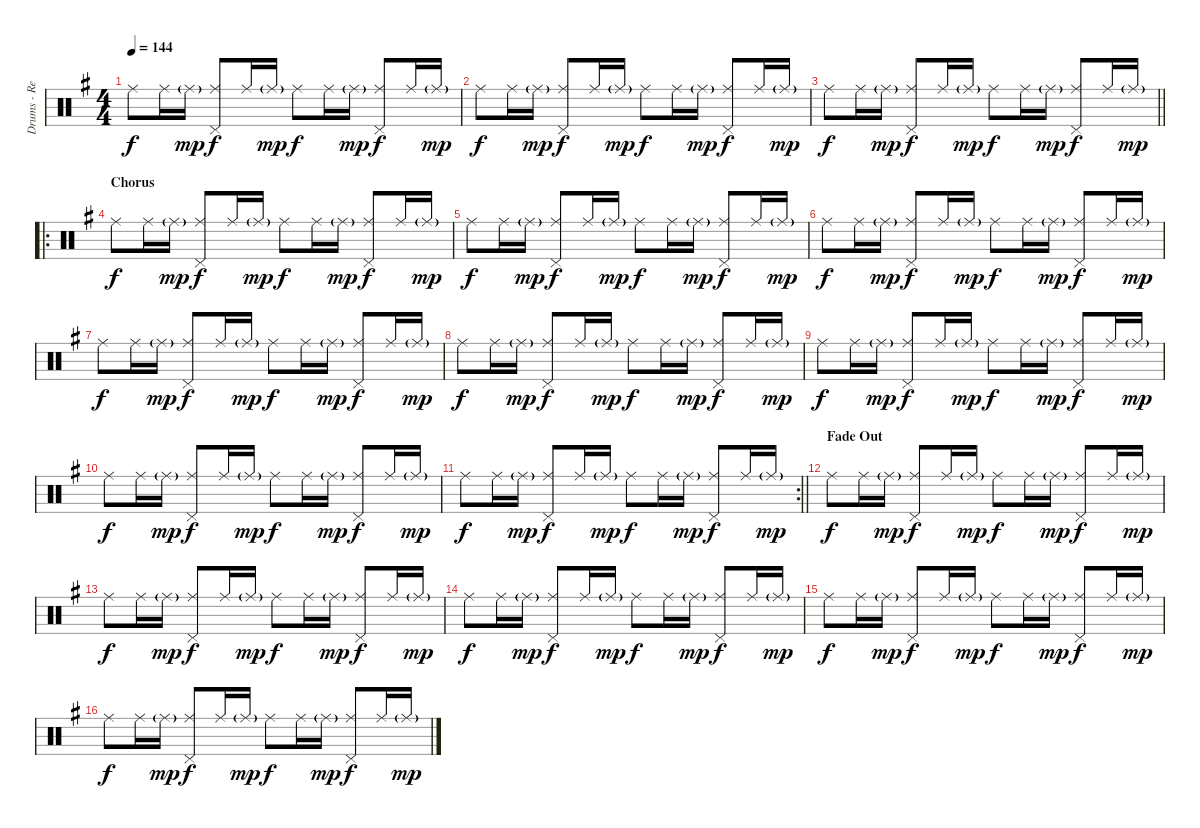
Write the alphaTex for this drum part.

\track ("Drums - Reni" "Drums - Re") {instrument percussion}
\staff {score}
\articulation defaults
\ts (4 4)
\tempo 144
\clef neutral
\ks g "Ride (middle)".8{dy f} "Ride (middle)".16 "Ride (middle)"{g}.16{dy mp}
("Ride (middle)" "Pedal Hi-Hat (hit)").8{dy f} "Ride (middle)".16 "Ride (middle)"{g}.16{dy mp} "Ride (middle)".8{dy f} "Ride (middle)".16 "Ride (middle)"{g}.16{dy mp} ("Ride (middle)" "Pedal Hi-Hat (hit)").8{dy f} "Ride (middle)".16 "Ride (middle)"{g}.16{dy mp} |
"Ride (middle)".8{dy f} "Ride (middle)".16 "Ride (middle)"{g}.16{dy mp} ("Ride (middle)" "Pedal Hi-Hat (hit)").8{dy f} "Ride (middle)".16 "Ride (middle)"{g}.16{dy mp} "Ride (middle)".8{dy f} "Ride (middle)".16 "Ride (middle)"{g}.16{dy mp} ("Ride (middle)" "Pedal Hi-Hat (hit)").8{dy f} "Ride (middle)".16 "Ride (middle)"{g}.16{dy mp} |
\barLineRight lightlight "Ride (middle)".8{dy f} "Ride (middle)".16 "Ride (middle)"{g}.16{dy mp}
("Ride (middle)" "Pedal Hi-Hat (hit)").8{dy f} "Ride (middle)".16 "Ride (middle)"{g}.16{dy mp} "Ride (middle)".8{dy f} "Ride (middle)".16 "Ride (middle)"{g}.16{dy mp} ("Ride (middle)" "Pedal Hi-Hat (hit)").8{dy f} "Ride (middle)".16 "Ride (middle)"{g}.16{dy mp} |
\ro
\section ("" "Chorus")
"Ride (middle)".8{dy f} "Ride (middle)".16 "Ride (middle)"{g}.16{dy mp} ("Ride (middle)" "Pedal Hi-Hat (hit)").8{dy f} "Ride (middle)".16 "Ride (middle)"{g}.16{dy mp} "Ride (middle)".8{dy f} "Ride (middle)".16 "Ride (middle)"{g}.16{dy mp} ("Ride (middle)" "Pedal Hi-Hat (hit)").8{dy f} "Ride (middle)".16 "Ride (middle)"{g}.16{dy mp} |
"Ride (middle)".8{dy f} "Ride (middle)".16 "Ride (middle)"{g}.16{dy mp} ("Ride (middle)" "Pedal Hi-Hat (hit)").8{dy f} "Ride (middle)".16 "Ride (middle)"{g}.16{dy mp} "Ride (middle)".8{dy f} "Ride (middle)".16 "Ride (middle)"{g}.16{dy mp} ("Ride (middle)" "Pedal Hi-Hat (hit)").8{dy f} "Ride (middle)".16 "Ride (middle)"{g}.16{dy mp} |
"Ride (middle)".8{dy f} "Ride (middle)".16 "Ride (middle)"{g}.16{dy mp} ("Ride (middle)" "Pedal Hi-Hat (hit)").8{dy f} "Ride (middle)".16 "Ride (middle)"{g}.16{dy mp} "Ride (middle)".8{dy f} "Ride (middle)".16 "Ride (middle)"{g}.16{dy mp} ("Ride (middle)" "Pedal Hi-Hat (hit)").8{dy f} "Ride (middle)".16 "Ride (middle)"{g}.16{dy mp} |
"Ride (middle)".8{dy f} "Ride (middle)".16 "Ride (middle)"{g}.16{dy mp} ("Ride (middle)" "Pedal Hi-Hat (hit)").8{dy f} "Ride (middle)".16 "Ride (middle)"{g}.16{dy mp} "Ride (middle)".8{dy f} "Ride (middle)".16 "Ride (middle)"{g}.16{dy mp} ("Ride (middle)" "Pedal Hi-Hat (hit)").8{dy f} "Ride (middle)".16 "Ride (middle)"{g}.16{dy mp} |
"Ride (middle)".8{dy f} "Ride (middle)".16 "Ride (middle)"{g}.16{dy mp} ("Ride (middle)" "Pedal Hi-Hat (hit)").8{dy f} "Ride (middle)".16 "Ride (middle)"{g}.16{dy mp} "Ride (middle)".8{dy f} "Ride (middle)".16 "Ride (middle)"{g}.16{dy mp} ("Ride (middle)" "Pedal Hi-Hat (hit)").8{dy f} "Ride (middle)".16 "Ride (middle)"{g}.16{dy mp} |
"Ride (middle)".8{dy f} "Ride (middle)".16 "Ride (middle)"{g}.16{dy mp} ("Ride (middle)" "Pedal Hi-Hat (hit)").8{dy f} "Ride (middle)".16 "Ride (middle)"{g}.16{dy mp} "Ride (middle)".8{dy f} "Ride (middle)".16 "Ride (middle)"{g}.16{dy mp} ("Ride (middle)" "Pedal Hi-Hat (hit)").8{dy f} "Ride (middle)".16 "Ride (middle)"{g}.16{dy mp} |
"Ride (middle)".8{dy f} "Ride (middle)".16 "Ride (middle)"{g}.16{dy mp} ("Ride (middle)" "Pedal Hi-Hat (hit)").8{dy f} "Ride (middle)".16 "Ride (middle)"{g}.16{dy mp} "Ride (middle)".8{dy f} "Ride (middle)".16 "Ride (middle)"{g}.16{dy mp} ("Ride (middle)" "Pedal Hi-Hat (hit)").8{dy f} "Ride (middle)".16 "Ride (middle)"{g}.16{dy mp} |
\rc 2
\barLineRight lightlight "Ride (middle)".8{dy f} "Ride (middle)".16 "Ride (middle)"{g}.16{dy mp}
("Ride (middle)" "Pedal Hi-Hat (hit)").8{dy f} "Ride (middle)".16 "Ride (middle)"{g}.16{dy mp} "Ride (middle)".8{dy f} "Ride (middle)".16 "Ride (middle)"{g}.16{dy mp} ("Ride (middle)" "Pedal Hi-Hat (hit)").8{dy f} "Ride (middle)".16 "Ride (middle)"{g}.16{dy mp} |
\section ("" "Fade Out")
"Ride (middle)".8{dy f} "Ride (middle)".16 "Ride (middle)"{g}.16{dy mp} ("Ride (middle)" "Pedal Hi-Hat (hit)").8{dy f} "Ride (middle)".16 "Ride (middle)"{g}.16{dy mp} "Ride (middle)".8{dy f} "Ride (middle)".16 "Ride (middle)"{g}.16{dy mp} ("Ride (middle)" "Pedal Hi-Hat (hit)").8{dy f} "Ride (middle)".16 "Ride (middle)"{g}.16{dy mp} |
"Ride (middle)".8{dy f} "Ride (middle)".16 "Ride (middle)"{g}.16{dy mp} ("Ride (middle)" "Pedal Hi-Hat (hit)").8{dy f} "Ride (middle)".16 "Ride (middle)"{g}.16{dy mp} "Ride (middle)".8{dy f} "Ride (middle)".16 "Ride (middle)"{g}.16{dy mp} ("Ride (middle)" "Pedal Hi-Hat (hit)").8{dy f} "Ride (middle)".16 "Ride (middle)"{g}.16{dy mp} |
"Ride (middle)".8{dy f} "Ride (middle)".16 "Ride (middle)"{g}.16{dy mp} ("Ride (middle)" "Pedal Hi-Hat (hit)").8{dy f} "Ride (middle)".16 "Ride (middle)"{g}.16{dy mp} "Ride (middle)".8{dy f} "Ride (middle)".16 "Ride (middle)"{g}.16{dy mp} ("Ride (middle)" "Pedal Hi-Hat (hit)").8{dy f} "Ride (middle)".16 "Ride (middle)"{g}.16{dy mp} |
"Ride (middle)".8{dy f} "Ride (middle)".16 "Ride (middle)"{g}.16{dy mp} ("Ride (middle)" "Pedal Hi-Hat (hit)").8{dy f} "Ride (middle)".16 "Ride (middle)"{g}.16{dy mp} "Ride (middle)".8{dy f} "Ride (middle)".16 "Ride (middle)"{g}.16{dy mp} ("Ride (middle)" "Pedal Hi-Hat (hit)").8{dy f} "Ride (middle)".16 "Ride (middle)"{g}.16{dy mp} |
"Ride (middle)".8{dy f} "Ride (middle)".16 "Ride (middle)"{g}.16{dy mp} ("Ride (middle)" "Pedal Hi-Hat (hit)").8{dy f} "Ride (middle)".16 "Ride (middle)"{g}.16{dy mp} "Ride (middle)".8{dy f} "Ride (middle)".16 "Ride (middle)"{g}.16{dy mp} ("Ride (middle)" "Pedal Hi-Hat (hit)").8{dy f} "Ride (middle)".16 "Ride (middle)"{g}.16{dy mp}
